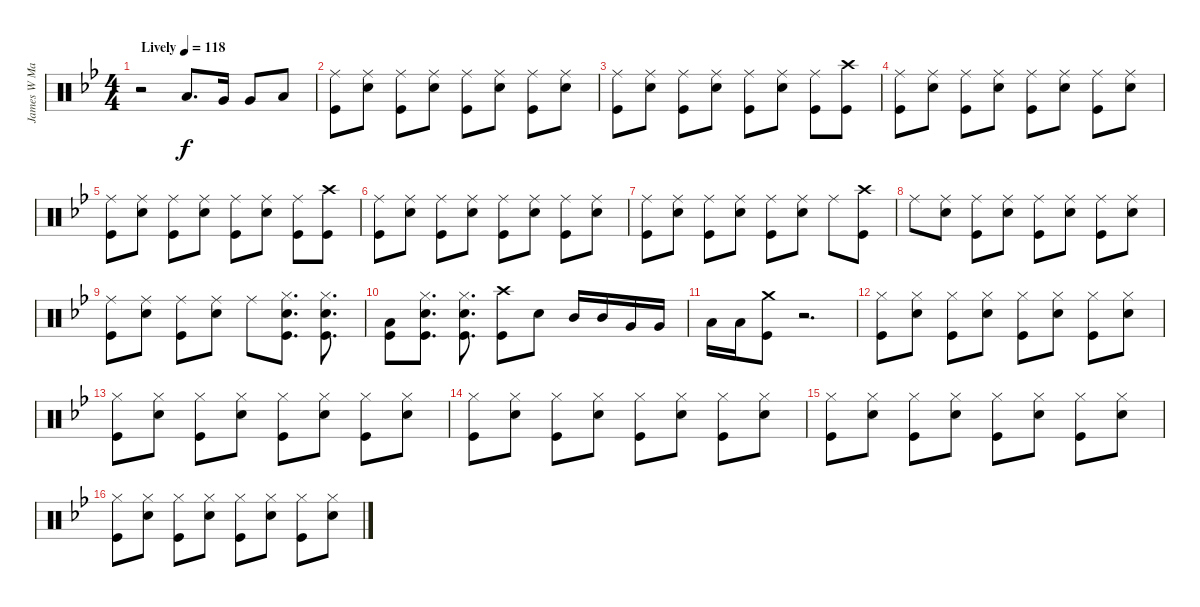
\track ("James W Marshall Drums" "James W Ma") {instrument percussion}
\staff {score}
\articulation defaults
\ts (4 4)
\tempo (118 "Lively")
\clef neutral
\ks gminor
r.2{dy f} "Low Tom (hit)".8{d} "Very Low Tom (hit)".16 "Very Low Tom (hit)".8 "Low Floor Tom (hit)".8 |
("Ride (middle)" "Kick (hit)").8 ("Ride (middle)" "Snare (hit) 2").8 ("Ride (middle)" "Kick (hit)").8 ("Ride (middle)" "Snare (hit) 2").8 ("Ride (middle)" "Kick (hit)").8 ("Ride (middle)" "Snare (hit) 2").8 ("Ride (middle)" "Kick (hit)").8 ("Ride (middle)" "Snare (hit) 2").8 |
("Ride (middle)" "Kick (hit)").8 ("Ride (middle)" "Snare (hit) 2").8 ("Ride (middle)" "Kick (hit)").8 ("Ride (middle)" "Snare (hit) 2").8 ("Ride (middle)" "Kick (hit)").8 ("Ride (middle)" "Snare (hit) 2").8 ("Ride (middle)" "Kick (hit)").8 ("Crash high (hit)" "Kick (hit)").8 |
("Ride (middle)" "Kick (hit)").8 ("Ride (middle)" "Snare (hit) 2").8 ("Ride (middle)" "Kick (hit)").8 ("Ride (middle)" "Snare (hit) 2").8 ("Ride (middle)" "Kick (hit)").8 ("Ride (middle)" "Snare (hit) 2").8 ("Ride (middle)" "Kick (hit)").8 ("Ride (middle)" "Snare (hit) 2").8 |
("Ride (middle)" "Kick (hit)").8 ("Ride (middle)" "Snare (hit) 2").8 ("Ride (middle)" "Kick (hit)").8 ("Ride (middle)" "Snare (hit) 2").8 ("Ride (middle)" "Kick (hit)").8 ("Ride (middle)" "Snare (hit) 2").8 ("Ride (middle)" "Kick (hit)").8 ("Crash high (hit)" "Kick (hit)").8 |
("Ride (middle)" "Kick (hit)").8 ("Ride (middle)" "Snare (hit) 2").8 ("Ride (middle)" "Kick (hit)").8 ("Ride (middle)" "Snare (hit) 2").8 ("Ride (middle)" "Kick (hit)").8 ("Ride (middle)" "Snare (hit) 2").8 ("Ride (middle)" "Kick (hit)").8 ("Ride (middle)" "Snare (hit) 2").8 |
("Ride (middle)" "Kick (hit)").8 ("Ride (middle)" "Snare (hit) 2").8 ("Ride (middle)" "Kick (hit)").8 ("Ride (middle)" "Snare (hit) 2").8 ("Ride (middle)" "Kick (hit)").8 ("Ride (middle)" "Snare (hit) 2").8 "Ride (middle)".8 ("Crash high (hit)" "Kick (hit)").8 |
"Ride (middle)".8 ("Ride (middle)" "Snare (hit) 2").8 ("Ride (middle)" "Kick (hit)").8 ("Ride (middle)" "Snare (hit) 2").8 ("Ride (middle)" "Kick (hit)").8 ("Ride (middle)" "Snare (hit) 2").8 ("Ride (middle)" "Kick (hit)").8 ("Ride (middle)" "Snare (hit) 2").8 |
("Ride (middle)" "Kick (hit)").8 ("Ride (middle)" "Snare (hit) 2").8 ("Ride (middle)" "Kick (hit)").8 ("Ride (middle)" "Snare (hit) 2").8 "Ride (middle)".8 ("Hi-Hat (closed)" "Snare (hit) 2" "Kick (hit)").8{d} ("Hi-Hat (closed)" "Snare (hit) 2" "Kick (hit)").8{d} |
("Low Floor Tom (hit)" "Kick (hit)").8 ("Hi-Hat (closed)" "Snare (hit) 2" "Kick (hit)").8{d} ("Hi-Hat (closed)" "Snare (hit) 2" "Kick (hit)").8{d} ("Crash high (hit)" "Kick (hit)").8 "Snare (hit) 2".8 "Mid Tom (hit)".16 "Mid Tom (hit)".16 "Very Low Tom (hit)".16 "Very Low Tom (hit)".16 |
"Low Floor Tom (hit)".16 "Low Floor Tom (hit)".16 ("Crash medium (hit)" "Kick (hit)").8 r.2{d} |
("Hi-Hat (closed)" "Kick (hit)").8 ("Hi-Hat (closed)" "Snare (hit) 2").8 ("Hi-Hat (closed)" "Kick (hit)").8 ("Hi-Hat (closed)" "Snare (hit) 2").8 ("Hi-Hat (closed)" "Kick (hit)").8 ("Hi-Hat (closed)" "Snare (hit) 2").8 ("Hi-Hat (closed)" "Kick (hit)").8 ("Hi-Hat (closed)" "Snare (hit) 2").8 |
("Hi-Hat (closed)" "Kick (hit)").8 ("Hi-Hat (closed)" "Snare (hit) 2").8 ("Hi-Hat (closed)" "Kick (hit)").8 ("Hi-Hat (closed)" "Snare (hit) 2").8 ("Hi-Hat (closed)" "Kick (hit)").8 ("Hi-Hat (closed)" "Snare (hit) 2").8 ("Hi-Hat (closed)" "Kick (hit)").8 ("Hi-Hat (closed)" "Snare (hit) 2").8 |
("Hi-Hat (closed)" "Kick (hit)").8 ("Hi-Hat (closed)" "Snare (hit) 2").8 ("Hi-Hat (closed)" "Kick (hit)").8 ("Hi-Hat (closed)" "Snare (hit) 2").8 ("Hi-Hat (closed)" "Kick (hit)").8 ("Hi-Hat (closed)" "Snare (hit) 2").8 ("Hi-Hat (closed)" "Kick (hit)").8 ("Hi-Hat (closed)" "Snare (hit) 2").8 |
("Hi-Hat (closed)" "Kick (hit)").8 ("Hi-Hat (closed)" "Snare (hit) 2").8 ("Hi-Hat (closed)" "Kick (hit)").8 ("Hi-Hat (closed)" "Snare (hit) 2").8 ("Hi-Hat (closed)" "Kick (hit)").8 ("Hi-Hat (closed)" "Snare (hit) 2").8 ("Hi-Hat (closed)" "Kick (hit)").8 ("Hi-Hat (closed)" "Snare (hit) 2").8 |
("Hi-Hat (closed)" "Kick (hit)").8 ("Hi-Hat (closed)" "Snare (hit) 2").8 ("Hi-Hat (closed)" "Kick (hit)").8 ("Hi-Hat (closed)" "Snare (hit) 2").8 ("Hi-Hat (closed)" "Kick (hit)").8 ("Hi-Hat (closed)" "Snare (hit) 2").8 ("Hi-Hat (closed)" "Kick (hit)").8 ("Hi-Hat (closed)" "Snare (hit) 2").8
